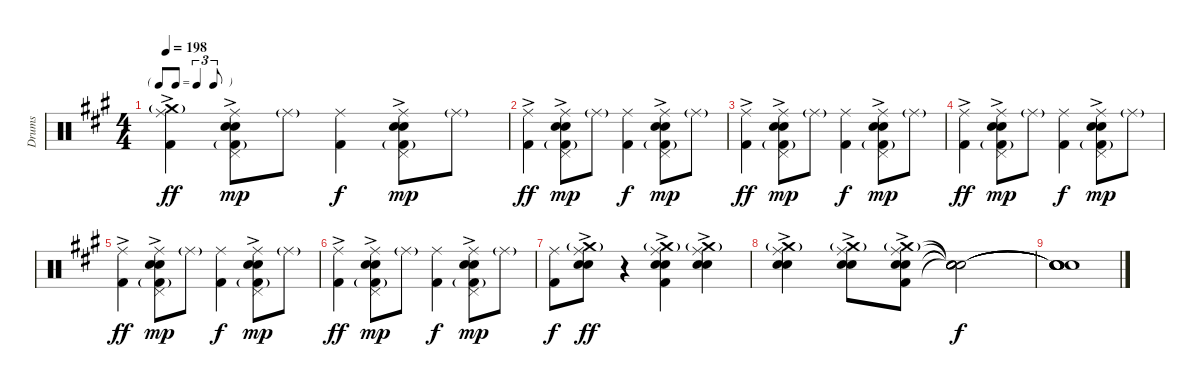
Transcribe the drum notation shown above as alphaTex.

\track ("Drums" "Drums") {instrument percussion}
\staff {score}
\articulation defaults
\ts (4 4)
\tf triplet8th
\tempo 198
\clef neutral
\ks a
("Ride (middle)" "Crash medium (hit)"{g} "Kick (hit) 2"{ac}).4{dy ff} ("Ride (middle)" "Pedal Hi-Hat (hit)" "Electric Snare (hit)"{ac} "Snare (hit) 2" "Kick (hit) 2"{g}).8{dy mp} "Ride (middle)"{g}.8 ("Ride (middle)" "Kick (hit) 2").4{dy f} ("Ride (middle)" "Pedal Hi-Hat (hit)" "Electric Snare (hit)"{ac} "Snare (hit) 2" "Kick (hit) 2"{g}).8{dy mp} "Ride (middle)"{g}.8 |
("Ride (middle)" "Kick (hit) 2"{ac}).4{dy ff} ("Ride (middle)" "Pedal Hi-Hat (hit)" "Electric Snare (hit)"{ac} "Snare (hit) 2" "Kick (hit) 2"{g}).8{dy mp} "Ride (middle)"{g}.8 ("Ride (middle)" "Kick (hit) 2").4{dy f} ("Ride (middle)" "Pedal Hi-Hat (hit)" "Electric Snare (hit)"{ac} "Snare (hit) 2" "Kick (hit) 2"{g}).8{dy mp} "Ride (middle)"{g}.8 |
("Ride (middle)" "Kick (hit) 2"{ac}).4{dy ff} ("Ride (middle)" "Pedal Hi-Hat (hit)" "Electric Snare (hit)"{ac} "Snare (hit) 2" "Kick (hit) 2"{g}).8{dy mp} "Ride (middle)"{g}.8 ("Ride (middle)" "Kick (hit) 2").4{dy f} ("Ride (middle)" "Pedal Hi-Hat (hit)" "Electric Snare (hit)"{ac} "Snare (hit) 2" "Kick (hit) 2"{g}).8{dy mp} "Ride (middle)"{g}.8 |
("Ride (middle)" "Kick (hit) 2"{ac}).4{dy ff} ("Ride (middle)" "Pedal Hi-Hat (hit)" "Electric Snare (hit)"{ac} "Snare (hit) 2" "Kick (hit) 2"{g}).8{dy mp} "Ride (middle)"{g}.8 ("Ride (middle)" "Kick (hit) 2").4{dy f} ("Ride (middle)" "Pedal Hi-Hat (hit)" "Electric Snare (hit)"{ac} "Snare (hit) 2" "Kick (hit) 2"{g}).8{dy mp} "Ride (middle)"{g}.8 |
("Ride (middle)" "Kick (hit) 2"{ac}).4{dy ff} ("Ride (middle)" "Pedal Hi-Hat (hit)" "Electric Snare (hit)"{ac} "Snare (hit) 2" "Kick (hit) 2"{g}).8{dy mp} "Ride (middle)"{g}.8 ("Ride (middle)" "Kick (hit) 2").4{dy f} ("Ride (middle)" "Pedal Hi-Hat (hit)" "Electric Snare (hit)"{ac} "Snare (hit) 2" "Kick (hit) 2"{g}).8{dy mp} "Ride (middle)"{g}.8 |
("Ride (middle)" "Kick (hit) 2"{ac}).4{dy ff} ("Ride (middle)" "Pedal Hi-Hat (hit)" "Electric Snare (hit)"{ac} "Snare (hit) 2" "Kick (hit) 2"{g}).8{dy mp} "Ride (middle)"{g}.8 ("Ride (middle)" "Kick (hit) 2").4{dy f} ("Ride (middle)" "Pedal Hi-Hat (hit)" "Electric Snare (hit)"{ac} "Snare (hit) 2" "Kick (hit) 2"{g}).8{dy mp} "Ride (middle)"{g}.8 |
("Ride (middle)" "Kick (hit) 2").8{dy f} ("Ride (middle)" "Crash medium (hit)"{g} "Electric Snare (hit)"{ac} "Snare (hit) 2").8{dy ff} r.4 ("Ride (middle)" "Crash medium (hit)"{g} "Electric Snare (hit)"{ac} "Snare (hit) 2" "Kick (hit) 2").4 ("Ride (middle)" "Crash medium (hit)"{g} "Electric Snare (hit)"{ac} "Snare (hit) 2").4 |
("Ride (middle)" "Crash medium (hit)"{g} "Electric Snare (hit)"{ac} "Snare (hit) 2").4 ("Ride (middle)" "Crash medium (hit)"{g} "Electric Snare (hit)"{ac} "Snare (hit) 2").8 ("Ride (middle)" "Crash medium (hit)"{g} "Electric Snare (hit)"{ac} "Snare (hit) 2" "Kick (hit) 2").8 ("Snare (hit)"{t} "Snare (hit)"{t} "Snare (hit)"{t} "Snare (hit)"{t} "Snare (hit)"{t}).2{dy f} |
("Snare (hit)"{t} "Snare (hit)"{t} "Snare (hit)"{t} "Snare (hit)"{t} "Snare (hit)"{t}).1
